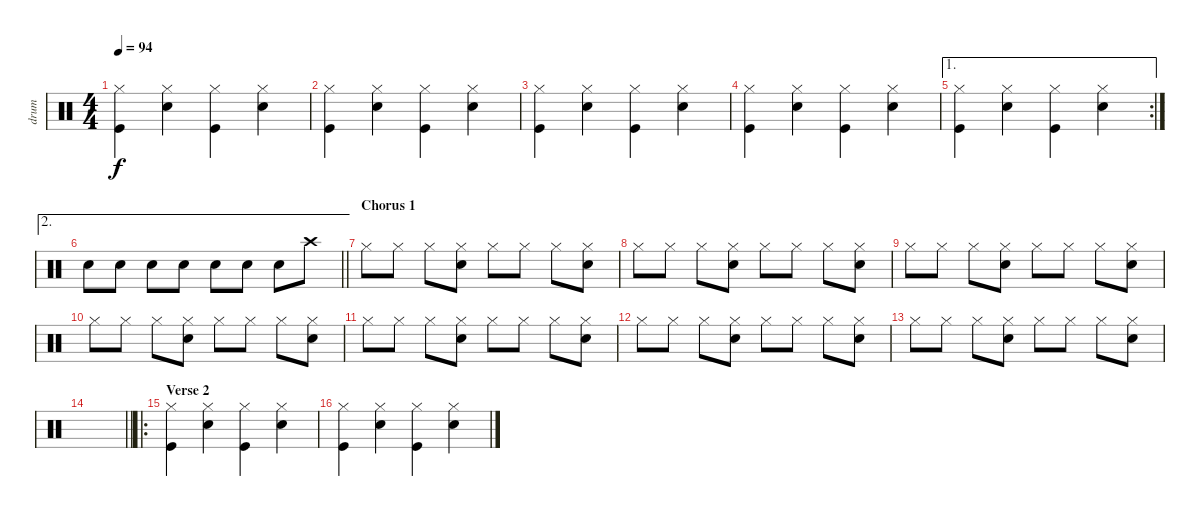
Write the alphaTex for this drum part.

\track ("drum" "drum") {instrument percussion}
\staff {score}
\articulation defaults
\ts (4 4)
\tempo 94
\clef neutral
\ks c
("Hi-Hat (closed)" "Kick (hit)").4{dy f} ("Hi-Hat (closed)" "Snare (hit) 2").4 ("Hi-Hat (closed)" "Kick (hit)").4 ("Hi-Hat (closed)" "Snare (hit) 2").4 |
("Hi-Hat (closed)" "Kick (hit)").4 ("Hi-Hat (closed)" "Snare (hit) 2").4 ("Hi-Hat (closed)" "Kick (hit)").4 ("Hi-Hat (closed)" "Snare (hit) 2").4 |
("Hi-Hat (closed)" "Kick (hit)").4 ("Hi-Hat (closed)" "Snare (hit) 2").4 ("Hi-Hat (closed)" "Kick (hit)").4 ("Hi-Hat (closed)" "Snare (hit) 2").4 |
("Hi-Hat (closed)" "Kick (hit)").4 ("Hi-Hat (closed)" "Snare (hit) 2").4 ("Hi-Hat (closed)" "Kick (hit)").4 ("Hi-Hat (closed)" "Snare (hit) 2").4 |
\ae 1
\rc 2
("Hi-Hat (closed)" "Kick (hit)").4 ("Hi-Hat (closed)" "Snare (hit) 2").4 ("Hi-Hat (closed)" "Kick (hit)").4 ("Hi-Hat (closed)" "Snare (hit) 2").4 |
\ae 2
\barLineRight lightlight "Snare (hit) 2".8 "Snare (hit) 2".8 "Snare (hit) 2".8 "Snare (hit) 2".8 "Snare (hit) 2".8 "Snare (hit) 2".8 "Snare (hit) 2".8 "Crash high (hit)".8
|
\section ("" "Chorus 1")
"Hi-Hat (closed)".8 "Hi-Hat (closed)".8 "Hi-Hat (closed)".8 ("Hi-Hat (closed)" "Snare (hit) 2").8 "Hi-Hat (closed)".8 "Hi-Hat (closed)".8 "Hi-Hat (closed)".8 ("Hi-Hat (closed)" "Snare (hit) 2").8 |
"Hi-Hat (closed)".8 "Hi-Hat (closed)".8 "Hi-Hat (closed)".8 ("Hi-Hat (closed)" "Snare (hit) 2").8 "Hi-Hat (closed)".8 "Hi-Hat (closed)".8 "Hi-Hat (closed)".8 ("Hi-Hat (closed)" "Snare (hit) 2").8 |
"Hi-Hat (closed)".8 "Hi-Hat (closed)".8 "Hi-Hat (closed)".8 ("Hi-Hat (closed)" "Snare (hit) 2").8 "Hi-Hat (closed)".8 "Hi-Hat (closed)".8 "Hi-Hat (closed)".8 ("Hi-Hat (closed)" "Snare (hit) 2").8 |
"Hi-Hat (closed)".8 "Hi-Hat (closed)".8 "Hi-Hat (closed)".8 ("Hi-Hat (closed)" "Snare (hit) 2").8 "Hi-Hat (closed)".8 "Hi-Hat (closed)".8 "Hi-Hat (closed)".8 ("Hi-Hat (closed)" "Snare (hit) 2").8 |
"Hi-Hat (closed)".8 "Hi-Hat (closed)".8 "Hi-Hat (closed)".8 ("Hi-Hat (closed)" "Snare (hit) 2").8 "Hi-Hat (closed)".8 "Hi-Hat (closed)".8 "Hi-Hat (closed)".8 ("Hi-Hat (closed)" "Snare (hit) 2").8 |
"Hi-Hat (closed)".8 "Hi-Hat (closed)".8 "Hi-Hat (closed)".8 ("Hi-Hat (closed)" "Snare (hit) 2").8 "Hi-Hat (closed)".8 "Hi-Hat (closed)".8 "Hi-Hat (closed)".8 ("Hi-Hat (closed)" "Snare (hit) 2").8 |
"Hi-Hat (closed)".8 "Hi-Hat (closed)".8 "Hi-Hat (closed)".8 ("Hi-Hat (closed)" "Snare (hit) 2").8 "Hi-Hat (closed)".8 "Hi-Hat (closed)".8 "Hi-Hat (closed)".8 ("Hi-Hat (closed)" "Snare (hit) 2").8 |
\barLineRight lightlight
|
\ro
\section ("" "Verse 2")
("Hi-Hat (closed)" "Kick (hit)").4 ("Hi-Hat (closed)" "Snare (hit) 2").4 ("Hi-Hat (closed)" "Kick (hit)").4 ("Hi-Hat (closed)" "Snare (hit) 2").4 |
("Hi-Hat (closed)" "Kick (hit)").4 ("Hi-Hat (closed)" "Snare (hit) 2").4 ("Hi-Hat (closed)" "Kick (hit)").4 ("Hi-Hat (closed)" "Snare (hit) 2").4
